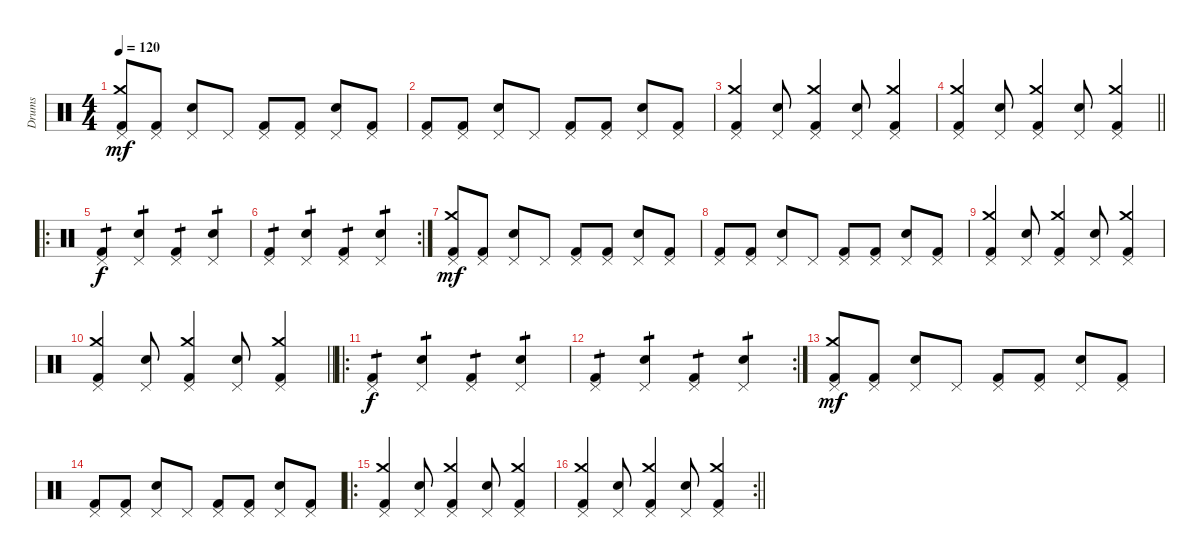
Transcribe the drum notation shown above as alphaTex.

\track ("Drums" "Drums") {instrument percussion}
\staff {score}
\articulation defaults
\ts (4 4)
\tempo 120
\clef neutral
\ks c
("Kick (hit) 2" "Crash medium (hit)" "Pedal Hi-Hat (hit)").8{dy mf} ("Kick (hit) 2" "Pedal Hi-Hat (hit)").8 ("Snare (hit) 2" "Pedal Hi-Hat (hit)").8 "Pedal Hi-Hat (hit)".8 ("Kick (hit) 2" "Pedal Hi-Hat (hit)").8 ("Kick (hit) 2" "Pedal Hi-Hat (hit)").8 ("Snare (hit) 2" "Pedal Hi-Hat (hit)").8 ("Kick (hit) 2" "Pedal Hi-Hat (hit)").8 |
("Kick (hit) 2" "Pedal Hi-Hat (hit)").8 ("Kick (hit) 2" "Pedal Hi-Hat (hit)").8 ("Snare (hit) 2" "Pedal Hi-Hat (hit)").8 "Pedal Hi-Hat (hit)".8 ("Kick (hit) 2" "Pedal Hi-Hat (hit)").8 ("Kick (hit) 2" "Pedal Hi-Hat (hit)").8 ("Snare (hit) 2" "Pedal Hi-Hat (hit)").8 ("Kick (hit) 2" "Pedal Hi-Hat (hit)").8 |
("Kick (hit) 2" "Crash medium (hit)" "Pedal Hi-Hat (hit)").4 ("Snare (hit) 2" "Pedal Hi-Hat (hit)").8 ("Kick (hit) 2" "Crash medium (hit)" "Pedal Hi-Hat (hit)").4 ("Snare (hit) 2" "Pedal Hi-Hat (hit)").8 ("Kick (hit) 2" "Crash medium (hit)" "Pedal Hi-Hat (hit)").4 |
\barLineRight lightlight
("Kick (hit) 2" "Crash medium (hit)" "Pedal Hi-Hat (hit)").4 ("Snare (hit) 2" "Pedal Hi-Hat (hit)").8 ("Kick (hit) 2" "Crash medium (hit)" "Pedal Hi-Hat (hit)").4 ("Snare (hit) 2" "Pedal Hi-Hat (hit)").8 ("Kick (hit) 2" "Crash medium (hit)" "Pedal Hi-Hat (hit)").4 |
\ro
("Kick (hit) 2" "Pedal Hi-Hat (hit)").4{tp 1 dy f} ("Snare (hit) 2" "Pedal Hi-Hat (hit)").4{tp 1} ("Kick (hit) 2" "Pedal Hi-Hat (hit)").4{tp 1} ("Snare (hit) 2" "Pedal Hi-Hat (hit)").4{tp 1} |
\rc 2
("Kick (hit) 2" "Pedal Hi-Hat (hit)").4{tp 1} ("Snare (hit) 2" "Pedal Hi-Hat (hit)").4{tp 1} ("Kick (hit) 2" "Pedal Hi-Hat (hit)").4{tp 1} ("Snare (hit) 2" "Pedal Hi-Hat (hit)").4{tp 1} |
("Kick (hit) 2" "Crash medium (hit)" "Pedal Hi-Hat (hit)").8{dy mf} ("Kick (hit) 2" "Pedal Hi-Hat (hit)").8 ("Snare (hit) 2" "Pedal Hi-Hat (hit)").8 "Pedal Hi-Hat (hit)".8 ("Kick (hit) 2" "Pedal Hi-Hat (hit)").8 ("Kick (hit) 2" "Pedal Hi-Hat (hit)").8 ("Snare (hit) 2" "Pedal Hi-Hat (hit)").8 ("Kick (hit) 2" "Pedal Hi-Hat (hit)").8 |
("Kick (hit) 2" "Pedal Hi-Hat (hit)").8 ("Kick (hit) 2" "Pedal Hi-Hat (hit)").8 ("Snare (hit) 2" "Pedal Hi-Hat (hit)").8 "Pedal Hi-Hat (hit)".8 ("Kick (hit) 2" "Pedal Hi-Hat (hit)").8 ("Kick (hit) 2" "Pedal Hi-Hat (hit)").8 ("Snare (hit) 2" "Pedal Hi-Hat (hit)").8 ("Kick (hit) 2" "Pedal Hi-Hat (hit)").8 |
("Kick (hit) 2" "Crash medium (hit)" "Pedal Hi-Hat (hit)").4 ("Snare (hit) 2" "Pedal Hi-Hat (hit)").8 ("Kick (hit) 2" "Crash medium (hit)" "Pedal Hi-Hat (hit)").4 ("Snare (hit) 2" "Pedal Hi-Hat (hit)").8 ("Kick (hit) 2" "Crash medium (hit)" "Pedal Hi-Hat (hit)").4 |
\barLineRight lightlight
("Kick (hit) 2" "Crash medium (hit)" "Pedal Hi-Hat (hit)").4 ("Snare (hit) 2" "Pedal Hi-Hat (hit)").8 ("Kick (hit) 2" "Crash medium (hit)" "Pedal Hi-Hat (hit)").4 ("Snare (hit) 2" "Pedal Hi-Hat (hit)").8 ("Kick (hit) 2" "Crash medium (hit)" "Pedal Hi-Hat (hit)").4 |
\ro
("Kick (hit) 2" "Pedal Hi-Hat (hit)").4{tp 1 dy f} ("Snare (hit) 2" "Pedal Hi-Hat (hit)").4{tp 1} ("Kick (hit) 2" "Pedal Hi-Hat (hit)").4{tp 1} ("Snare (hit) 2" "Pedal Hi-Hat (hit)").4{tp 1} |
\rc 2
("Kick (hit) 2" "Pedal Hi-Hat (hit)").4{tp 1} ("Snare (hit) 2" "Pedal Hi-Hat (hit)").4{tp 1} ("Kick (hit) 2" "Pedal Hi-Hat (hit)").4{tp 1} ("Snare (hit) 2" "Pedal Hi-Hat (hit)").4{tp 1} |
("Kick (hit) 2" "Crash medium (hit)" "Pedal Hi-Hat (hit)").8{dy mf} ("Kick (hit) 2" "Pedal Hi-Hat (hit)").8 ("Snare (hit) 2" "Pedal Hi-Hat (hit)").8 "Pedal Hi-Hat (hit)".8 ("Kick (hit) 2" "Pedal Hi-Hat (hit)").8 ("Kick (hit) 2" "Pedal Hi-Hat (hit)").8 ("Snare (hit) 2" "Pedal Hi-Hat (hit)").8 ("Kick (hit) 2" "Pedal Hi-Hat (hit)").8 |
("Kick (hit) 2" "Pedal Hi-Hat (hit)").8 ("Kick (hit) 2" "Pedal Hi-Hat (hit)").8 ("Snare (hit) 2" "Pedal Hi-Hat (hit)").8 "Pedal Hi-Hat (hit)".8 ("Kick (hit) 2" "Pedal Hi-Hat (hit)").8 ("Kick (hit) 2" "Pedal Hi-Hat (hit)").8 ("Snare (hit) 2" "Pedal Hi-Hat (hit)").8 ("Kick (hit) 2" "Pedal Hi-Hat (hit)").8 |
\ro
("Kick (hit) 2" "Crash medium (hit)" "Pedal Hi-Hat (hit)").4 ("Snare (hit) 2" "Pedal Hi-Hat (hit)").8 ("Kick (hit) 2" "Crash medium (hit)" "Pedal Hi-Hat (hit)").4 ("Snare (hit) 2" "Pedal Hi-Hat (hit)").8 ("Kick (hit) 2" "Crash medium (hit)" "Pedal Hi-Hat (hit)").4 |
\rc 2
\barLineRight lightlight
("Kick (hit) 2" "Crash medium (hit)" "Pedal Hi-Hat (hit)").4 ("Snare (hit) 2" "Pedal Hi-Hat (hit)").8 ("Kick (hit) 2" "Crash medium (hit)" "Pedal Hi-Hat (hit)").4 ("Snare (hit) 2" "Pedal Hi-Hat (hit)").8 ("Kick (hit) 2" "Crash medium (hit)" "Pedal Hi-Hat (hit)").4
